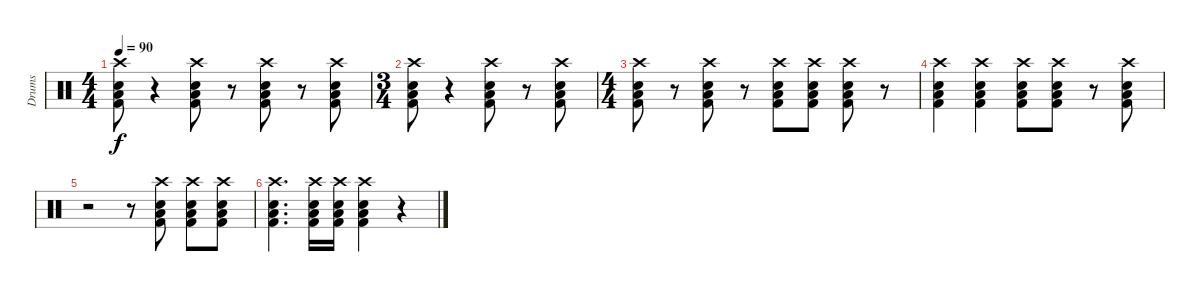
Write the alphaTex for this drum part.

\track ("Drums" "Drums") {instrument percussion}
\staff {score}
\articulation defaults
\ts (4 4)
\tempo 90
\clef neutral
\ks c
("Crash high (hit)" "Snare (hit) 2" "Low Floor Tom (hit)" "Kick (hit) 2").8{dy f} r.4 ("Crash high (hit)" "Snare (hit) 2" "Low Floor Tom (hit)" "Kick (hit) 2").8 r.8 ("Crash high (hit)" "Snare (hit) 2" "Low Floor Tom (hit)" "Kick (hit) 2").8 r.8 ("Crash high (hit)" "Snare (hit) 2" "Low Floor Tom (hit)" "Kick (hit) 2").8 |
\ts (3 4)
("Crash high (hit)" "Snare (hit) 2" "Low Floor Tom (hit)" "Kick (hit) 2").8 r.4 ("Crash high (hit)" "Snare (hit) 2" "Low Floor Tom (hit)" "Kick (hit) 2").8 r.8 ("Crash high (hit)" "Snare (hit) 2" "Low Floor Tom (hit)" "Kick (hit) 2").8 |
\ts (4 4)
("Crash high (hit)" "Snare (hit) 2" "Low Floor Tom (hit)" "Kick (hit) 2").8 r.8 ("Crash high (hit)" "Snare (hit) 2" "Low Floor Tom (hit)" "Kick (hit) 2").8 r.8 ("Crash high (hit)" "Snare (hit) 2" "Low Floor Tom (hit)" "Kick (hit) 2").8 ("Crash high (hit)" "Snare (hit) 2" "Low Floor Tom (hit)" "Kick (hit) 2").8 ("Crash high (hit)" "Snare (hit) 2" "Low Floor Tom (hit)" "Kick (hit) 2").8 r.8 |
("Crash high (hit)" "Snare (hit) 2" "Low Floor Tom (hit)" "Kick (hit) 2").4 ("Crash high (hit)" "Snare (hit) 2" "Low Floor Tom (hit)" "Kick (hit) 2").4 ("Crash high (hit)" "Snare (hit) 2" "Low Floor Tom (hit)" "Kick (hit) 2").8 ("Crash high (hit)" "Snare (hit) 2" "Low Floor Tom (hit)" "Kick (hit) 2").8 r.8 ("Crash high (hit)" "Snare (hit) 2" "Low Floor Tom (hit)" "Kick (hit) 2").8 |
r.2 r.8 ("Crash high (hit)" "Snare (hit) 2" "Low Floor Tom (hit)" "Kick (hit) 2").8 ("Crash high (hit)" "Snare (hit) 2" "Low Floor Tom (hit)" "Kick (hit) 2").8 ("Crash high (hit)" "Snare (hit) 2" "Low Floor Tom (hit)" "Kick (hit) 2").8 |
("Crash high (hit)" "Snare (hit) 2" "Low Floor Tom (hit)" "Kick (hit) 2").4{d} ("Crash high (hit)" "Snare (hit) 2" "Low Floor Tom (hit)" "Kick (hit) 2").16 ("Crash high (hit)" "Snare (hit) 2" "Low Floor Tom (hit)" "Kick (hit) 2").16 ("Crash high (hit)" "Snare (hit) 2" "Low Floor Tom (hit)" "Kick (hit) 2").4 r.4
